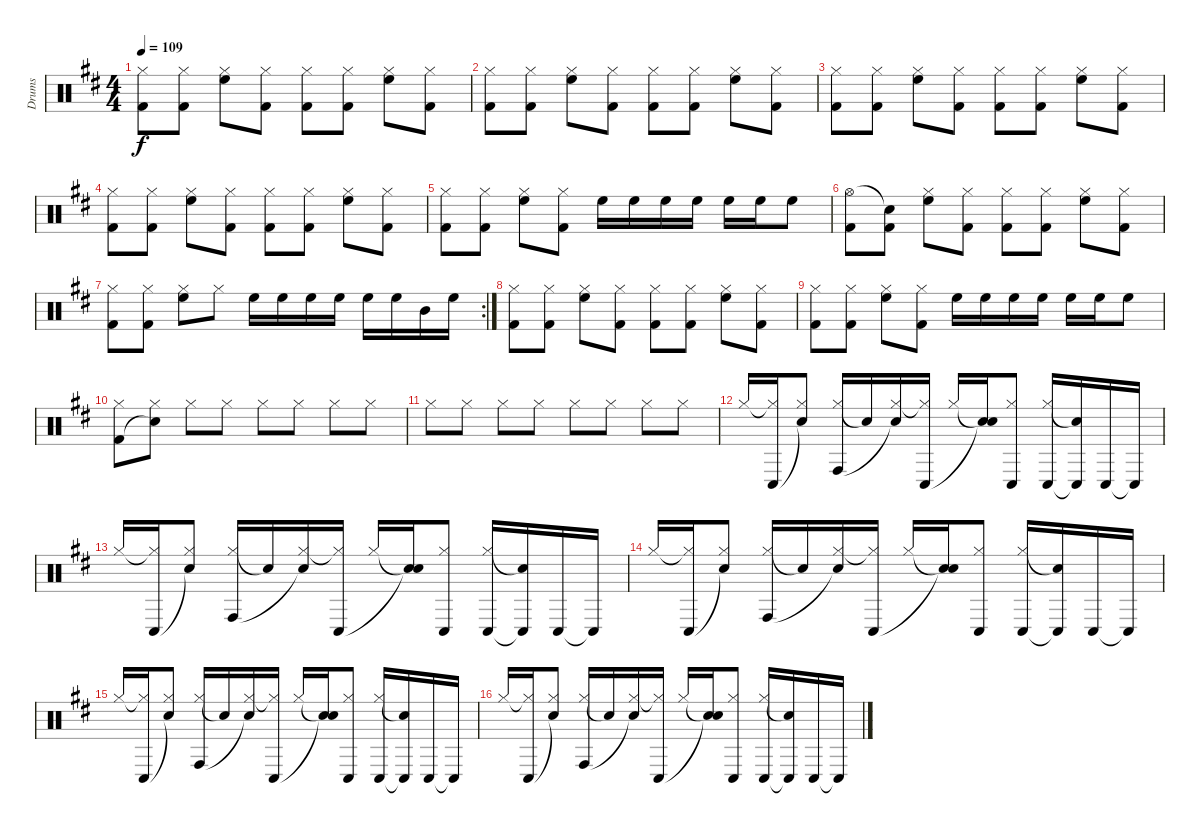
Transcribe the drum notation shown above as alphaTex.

\track ("Drums" "Drums") {instrument percussion}
\staff {score}
\articulation defaults
\ts (4 4)
\tempo 109
\clef neutral
\ks d
("Hi-Hat (closed)" "Kick (hit) 2").8{dy f} ("Hi-Hat (closed)" "Kick (hit) 2").8 ("Hi-Hat (closed)" "High Floor Tom (hit)").8 ("Hi-Hat (closed)" "Kick (hit) 2").8 ("Hi-Hat (closed)" "Kick (hit) 2").8 ("Hi-Hat (closed)" "Kick (hit) 2").8 ("Hi-Hat (closed)" "High Floor Tom (hit)").8 ("Hi-Hat (closed)" "Kick (hit) 2").8 |
("Hi-Hat (closed)" "Kick (hit) 2").8 ("Hi-Hat (closed)" "Kick (hit) 2").8 ("Hi-Hat (closed)" "High Floor Tom (hit)").8 ("Hi-Hat (closed)" "Kick (hit) 2").8 ("Hi-Hat (closed)" "Kick (hit) 2").8 ("Hi-Hat (closed)" "Kick (hit) 2").8 ("Hi-Hat (closed)" "High Floor Tom (hit)").8 ("Hi-Hat (closed)" "Kick (hit) 2").8 |
("Hi-Hat (closed)" "Kick (hit) 2").8 ("Hi-Hat (closed)" "Kick (hit) 2").8 ("Hi-Hat (closed)" "High Floor Tom (hit)").8 ("Hi-Hat (closed)" "Kick (hit) 2").8 ("Hi-Hat (closed)" "Kick (hit) 2").8 ("Hi-Hat (closed)" "Kick (hit) 2").8 ("Hi-Hat (closed)" "High Floor Tom (hit)").8 ("Hi-Hat (closed)" "Kick (hit) 2").8 |
("Hi-Hat (closed)" "Kick (hit) 2").8 ("Hi-Hat (closed)" "Kick (hit) 2").8 ("Hi-Hat (closed)" "High Floor Tom (hit)").8 ("Hi-Hat (closed)" "Kick (hit) 2").8 ("Hi-Hat (closed)" "Kick (hit) 2").8 ("Hi-Hat (closed)" "Kick (hit) 2").8 ("Hi-Hat (closed)" "High Floor Tom (hit)").8 ("Hi-Hat (closed)" "Kick (hit) 2").8 |
("Hi-Hat (closed)" "Kick (hit) 2").8 ("Hi-Hat (closed)" "Kick (hit) 2").8 ("Hi-Hat (closed)" "High Floor Tom (hit)").8 ("Hi-Hat (closed)" "Kick (hit) 2").8 "High Floor Tom (hit)".16 "High Floor Tom (hit)".16 "High Floor Tom (hit)".16 "High Floor Tom (hit)".16 "High Floor Tom (hit)".16 "High Floor Tom (hit)".16 "High Floor Tom (hit)".8 |
("Hi-Hat (open)" "Kick (hit) 2").8 ("Snare (hit)"{t} "Kick (hit) 2").8 ("Hi-Hat (closed)" "High Floor Tom (hit)").8 ("Hi-Hat (closed)" "Kick (hit) 2").8 ("Hi-Hat (closed)" "Kick (hit) 2").8 ("Hi-Hat (closed)" "Kick (hit) 2").8 ("Hi-Hat (closed)" "High Floor Tom (hit)").8 ("Hi-Hat (closed)" "Kick (hit) 2").8 |
\rc 2
("Hi-Hat (closed)" "Kick (hit) 2").8 ("Hi-Hat (closed)" "Kick (hit) 2").8 ("Hi-Hat (closed)" "High Floor Tom (hit)").8 "Hi-Hat (closed)".8 "High Floor Tom (hit)".16 "High Floor Tom (hit)".16 "High Floor Tom (hit)".16 "High Floor Tom (hit)".16 "High Floor Tom (hit)".16 "High Floor Tom (hit)".16 "Mid Tom (hit)".16 "High Floor Tom (hit)".16 |
("Hi-Hat (closed)" "Kick (hit) 2").8 ("Hi-Hat (closed)" "Kick (hit) 2").8 ("Hi-Hat (closed)" "High Floor Tom (hit)").8 ("Hi-Hat (closed)" "Kick (hit) 2").8 ("Hi-Hat (closed)" "Kick (hit) 2").8 ("Hi-Hat (closed)" "Kick (hit) 2").8 ("Hi-Hat (closed)" "High Floor Tom (hit)").8 ("Hi-Hat (closed)" "Kick (hit) 2").8 |
("Hi-Hat (closed)" "Kick (hit) 2").8 ("Hi-Hat (closed)" "Kick (hit) 2").8 ("Hi-Hat (closed)" "High Floor Tom (hit)").8 ("Hi-Hat (closed)" "Kick (hit) 2").8 "High Floor Tom (hit)".16 "High Floor Tom (hit)".16 "High Floor Tom (hit)".16 "High Floor Tom (hit)".16 "High Floor Tom (hit)".16 "High Floor Tom (hit)".16 "High Floor Tom (hit)".8 |
("Hi-Hat (closed)" "Kick (hit) 2").8 ("Hi-Hat (closed)" "Snare (hit)"{t}).8 "Hi-Hat (closed)".8 "Hi-Hat (closed)".8 "Hi-Hat (closed)".8 "Hi-Hat (closed)".8 "Hi-Hat (closed)".8 "Hi-Hat (closed)".8 |
"Hi-Hat (closed)".8 "Hi-Hat (closed)".8 "Hi-Hat (closed)".8 "Hi-Hat (closed)".8 "Hi-Hat (closed)".8 "Hi-Hat (closed)".8 "Hi-Hat (closed)".8 "Hi-Hat (closed)".8 |
"Hi-Hat (closed)".16 ("Hi-Hat (closed)"{t} "Conga low (hit)").16 ("Hi-Hat (closed)" "Snare (hit)"{t}).8 ("Hi-Hat (closed)" "Conga high (hit)").16 "Snare (hit)"{t}.16 ("Hi-Hat (closed)" "Snare (hit)"{t}).16 ("Hi-Hat (closed)"{t} "Conga low (hit)").16 "Hi-Hat (closed)".16 ("Snare (hit)"{t} "Snare (hit)"{t}).16 ("Hi-Hat (closed)" "Conga low (hit)").8 ("Hi-Hat (closed)" "Conga low (hit)").16 ("Snare (hit)"{t} "Conga low (hit)"{t}).16 "Conga low (hit)".16 "Conga low (hit)"{t}.16 |
"Hi-Hat (closed)".16 ("Hi-Hat (closed)"{t} "Conga low (hit)").16 ("Hi-Hat (closed)" "Snare (hit)"{t}).8 ("Hi-Hat (closed)" "Conga high (hit)").16 "Snare (hit)"{t}.16 ("Hi-Hat (closed)" "Snare (hit)"{t}).16 ("Hi-Hat (closed)"{t} "Conga low (hit)").16 "Hi-Hat (closed)".16 ("Snare (hit)"{t} "Snare (hit)"{t}).16 ("Hi-Hat (closed)" "Conga low (hit)").8 ("Hi-Hat (closed)" "Conga low (hit)").16 ("Snare (hit)"{t} "Conga low (hit)"{t}).16 "Conga low (hit)".16 "Conga low (hit)"{t}.16 |
"Hi-Hat (closed)".16 ("Hi-Hat (closed)"{t} "Conga low (hit)").16 ("Hi-Hat (closed)" "Snare (hit)"{t}).8 ("Hi-Hat (closed)" "Conga high (hit)").16 "Snare (hit)"{t}.16 ("Hi-Hat (closed)" "Snare (hit)"{t}).16 ("Hi-Hat (closed)"{t} "Conga low (hit)").16 "Hi-Hat (closed)".16 ("Snare (hit)"{t} "Snare (hit)"{t}).16 ("Hi-Hat (closed)" "Conga low (hit)").8 ("Hi-Hat (closed)" "Conga low (hit)").16 ("Snare (hit)"{t} "Conga low (hit)"{t}).16 "Conga low (hit)".16 "Conga low (hit)"{t}.16 |
"Hi-Hat (closed)".16 ("Hi-Hat (closed)"{t} "Conga low (hit)").16 ("Hi-Hat (closed)" "Snare (hit)"{t}).8 ("Hi-Hat (closed)" "Conga high (hit)").16 "Snare (hit)"{t}.16 ("Hi-Hat (closed)" "Snare (hit)"{t}).16 ("Hi-Hat (closed)"{t} "Conga low (hit)").16 "Hi-Hat (closed)".16 ("Snare (hit)"{t} "Snare (hit)"{t}).16 ("Hi-Hat (closed)" "Conga low (hit)").8 ("Hi-Hat (closed)" "Conga low (hit)").16 ("Snare (hit)"{t} "Conga low (hit)"{t}).16 "Conga low (hit)".16 "Conga low (hit)"{t}.16 |
"Hi-Hat (closed)".16 ("Hi-Hat (closed)"{t} "Conga low (hit)").16 ("Hi-Hat (closed)" "Snare (hit)"{t}).8 ("Hi-Hat (closed)" "Conga high (hit)").16 "Snare (hit)"{t}.16 ("Hi-Hat (closed)" "Snare (hit)"{t}).16 ("Hi-Hat (closed)"{t} "Conga low (hit)").16 "Hi-Hat (closed)".16 ("Snare (hit)"{t} "Snare (hit)"{t}).16 ("Hi-Hat (closed)" "Conga low (hit)").8 ("Hi-Hat (closed)" "Conga low (hit)").16 ("Snare (hit)"{t} "Conga low (hit)"{t}).16 "Conga low (hit)".16 "Conga low (hit)"{t}.16
